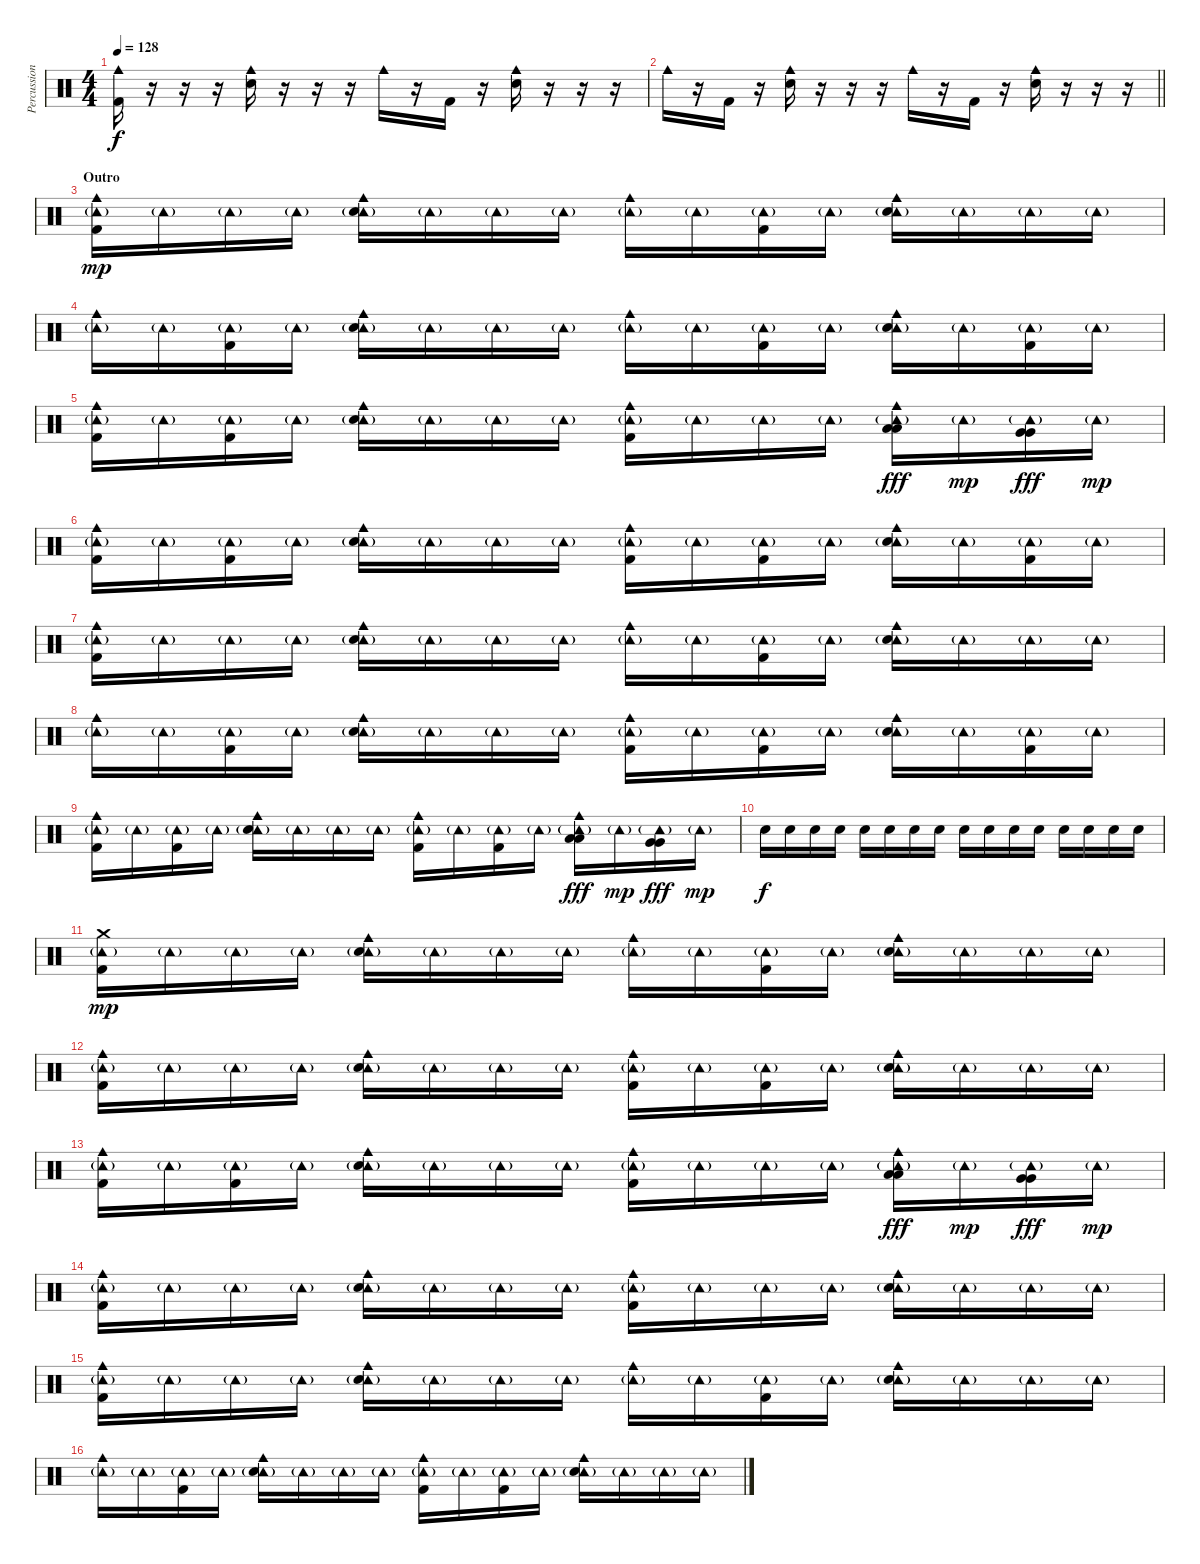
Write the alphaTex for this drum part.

\track ("Percussion" "Percussion") {instrument percussion}
\staff {score}
\articulation defaults
\ts (4 4)
\tempo 128
\clef neutral
\ks c
("Cowbell medium (hit)" "Kick (hit) 2").16{dy f} r.16 r.16 r.16 ("Cowbell medium (hit)" "Snare (hit) 2").16 r.16 r.16 r.16 "Cowbell medium (hit)".16 r.16 "Kick (hit) 2".16 r.16 ("Cowbell medium (hit)" "Snare (hit) 2").16 r.16 r.16 r.16 |
\barLineRight lightlight "Cowbell medium (hit)".16
r.16 "Kick (hit) 2".16 r.16 ("Cowbell medium (hit)" "Snare (hit) 2").16 r.16 r.16 r.16 "Cowbell medium (hit)".16 r.16 "Kick (hit) 2".16 r.16 ("Cowbell medium (hit)" "Snare (hit) 2").16 r.16 r.16 r.16 |
\section ("" "Outro")
("Tambourine (hit)"{g} "Cowbell medium (hit)" "Kick (hit) 2").16{dy mp} "Tambourine (hit)"{g}.16 "Tambourine (hit)"{g}.16 "Tambourine (hit)"{g}.16 ("Tambourine (hit)"{g} "Cowbell medium (hit)" "Snare (hit) 2").16 "Tambourine (hit)"{g}.16 "Tambourine (hit)"{g}.16 "Tambourine (hit)"{g}.16 ("Tambourine (hit)"{g} "Cowbell medium (hit)").16 "Tambourine (hit)"{g}.16 ("Tambourine (hit)"{g} "Kick (hit) 2").16 "Tambourine (hit)"{g}.16 ("Tambourine (hit)"{g} "Cowbell medium (hit)" "Snare (hit) 2").16 "Tambourine (hit)"{g}.16 "Tambourine (hit)"{g}.16 "Tambourine (hit)"{g}.16 |
("Tambourine (hit)"{g} "Cowbell medium (hit)").16 "Tambourine (hit)"{g}.16 ("Tambourine (hit)"{g} "Kick (hit) 2").16 "Tambourine (hit)"{g}.16 ("Tambourine (hit)"{g} "Cowbell medium (hit)" "Snare (hit) 2").16 "Tambourine (hit)"{g}.16 "Tambourine (hit)"{g}.16 "Tambourine (hit)"{g}.16 ("Tambourine (hit)"{g} "Cowbell medium (hit)").16 "Tambourine (hit)"{g}.16 ("Tambourine (hit)"{g} "Kick (hit) 2").16 "Tambourine (hit)"{g}.16 ("Tambourine (hit)"{g} "Cowbell medium (hit)" "Snare (hit) 2").16 "Tambourine (hit)"{g}.16 ("Tambourine (hit)"{g} "Kick (hit) 2").16 "Tambourine (hit)"{g}.16 |
("Tambourine (hit)"{g} "Cowbell medium (hit)" "Kick (hit) 2").16 "Tambourine (hit)"{g}.16 ("Tambourine (hit)"{g} "Kick (hit) 2").16 "Tambourine (hit)"{g}.16 ("Tambourine (hit)"{g} "Cowbell medium (hit)" "Snare (hit) 2").16 "Tambourine (hit)"{g}.16 "Tambourine (hit)"{g}.16 "Tambourine (hit)"{g}.16 ("Tambourine (hit)"{g} "Cowbell medium (hit)" "Kick (hit) 2").16 "Tambourine (hit)"{g}.16 "Tambourine (hit)"{g}.16 "Tambourine (hit)"{g}.16 ("Tambourine (hit)"{g} "Cowbell medium (hit)" "Low Tom (hit)" "Low Tom (hit)").16{dy fff} "Tambourine (hit)"{g}.16{dy mp} ("Tambourine (hit)"{g} "Very Low Tom (hit)" "Very Low Tom (hit)").16{dy fff} "Tambourine (hit)"{g}.16{dy mp} |
("Tambourine (hit)"{g} "Cowbell medium (hit)" "Kick (hit) 2").16 "Tambourine (hit)"{g}.16 ("Tambourine (hit)"{g} "Kick (hit) 2").16 "Tambourine (hit)"{g}.16 ("Tambourine (hit)"{g} "Cowbell medium (hit)" "Snare (hit) 2").16 "Tambourine (hit)"{g}.16 "Tambourine (hit)"{g}.16 "Tambourine (hit)"{g}.16 ("Tambourine (hit)"{g} "Cowbell medium (hit)" "Kick (hit) 2").16 "Tambourine (hit)"{g}.16 ("Tambourine (hit)"{g} "Kick (hit) 2").16 "Tambourine (hit)"{g}.16 ("Tambourine (hit)"{g} "Cowbell medium (hit)" "Snare (hit) 2").16 "Tambourine (hit)"{g}.16 ("Tambourine (hit)"{g} "Kick (hit) 2").16 "Tambourine (hit)"{g}.16 |
("Tambourine (hit)"{g} "Cowbell medium (hit)" "Kick (hit) 2").16 "Tambourine (hit)"{g}.16 "Tambourine (hit)"{g}.16 "Tambourine (hit)"{g}.16 ("Tambourine (hit)"{g} "Cowbell medium (hit)" "Snare (hit) 2").16 "Tambourine (hit)"{g}.16 "Tambourine (hit)"{g}.16 "Tambourine (hit)"{g}.16 ("Tambourine (hit)"{g} "Cowbell medium (hit)").16 "Tambourine (hit)"{g}.16 ("Tambourine (hit)"{g} "Kick (hit) 2").16 "Tambourine (hit)"{g}.16 ("Tambourine (hit)"{g} "Cowbell medium (hit)" "Snare (hit) 2").16 "Tambourine (hit)"{g}.16 "Tambourine (hit)"{g}.16 "Tambourine (hit)"{g}.16 |
("Tambourine (hit)"{g} "Cowbell medium (hit)").16 "Tambourine (hit)"{g}.16 ("Tambourine (hit)"{g} "Kick (hit) 2").16 "Tambourine (hit)"{g}.16 ("Tambourine (hit)"{g} "Cowbell medium (hit)" "Snare (hit) 2").16 "Tambourine (hit)"{g}.16 "Tambourine (hit)"{g}.16 "Tambourine (hit)"{g}.16 ("Tambourine (hit)"{g} "Cowbell medium (hit)" "Kick (hit) 2").16 "Tambourine (hit)"{g}.16 ("Tambourine (hit)"{g} "Kick (hit) 2").16 "Tambourine (hit)"{g}.16 ("Tambourine (hit)"{g} "Cowbell medium (hit)" "Snare (hit) 2").16 "Tambourine (hit)"{g}.16 ("Tambourine (hit)"{g} "Kick (hit) 2").16 "Tambourine (hit)"{g}.16 |
("Tambourine (hit)"{g} "Cowbell medium (hit)" "Kick (hit) 2").16 "Tambourine (hit)"{g}.16 ("Tambourine (hit)"{g} "Kick (hit) 2").16 "Tambourine (hit)"{g}.16 ("Tambourine (hit)"{g} "Cowbell medium (hit)" "Snare (hit) 2").16 "Tambourine (hit)"{g}.16 "Tambourine (hit)"{g}.16 "Tambourine (hit)"{g}.16 ("Tambourine (hit)"{g} "Cowbell medium (hit)" "Kick (hit) 2").16 "Tambourine (hit)"{g}.16 ("Tambourine (hit)"{g} "Kick (hit) 2").16 "Tambourine (hit)"{g}.16 ("Tambourine (hit)"{g} "Cowbell medium (hit)" "Low Tom (hit)" "Low Tom (hit)").16{dy fff} "Tambourine (hit)"{g}.16{dy mp} ("Tambourine (hit)"{g} "Very Low Tom (hit)" "Very Low Tom (hit)").16{dy fff} "Tambourine (hit)"{g}.16{dy mp} |
"Snare (hit) 2".16{dy f} "Snare (hit) 2".16 "Snare (hit) 2".16 "Snare (hit) 2".16 "Snare (hit) 2".16 "Snare (hit) 2".16 "Snare (hit) 2".16 "Snare (hit) 2".16 "Snare (hit) 2".16 "Snare (hit) 2".16 "Snare (hit) 2".16 "Snare (hit) 2".16 "Snare (hit) 2".16 "Snare (hit) 2".16 "Snare (hit) 2".16 "Snare (hit) 2".16 |
("Tambourine (hit)"{g} "Crash medium (hit)" "Kick (hit) 2").16{dy mp} "Tambourine (hit)"{g}.16 "Tambourine (hit)"{g}.16 "Tambourine (hit)"{g}.16 ("Tambourine (hit)"{g} "Cowbell medium (hit)" "Snare (hit) 2").16 "Tambourine (hit)"{g}.16 "Tambourine (hit)"{g}.16 "Tambourine (hit)"{g}.16 ("Tambourine (hit)"{g} "Cowbell medium (hit)").16 "Tambourine (hit)"{g}.16 ("Tambourine (hit)"{g} "Kick (hit) 2").16 "Tambourine (hit)"{g}.16 ("Tambourine (hit)"{g} "Cowbell medium (hit)" "Snare (hit) 2").16 "Tambourine (hit)"{g}.16 "Tambourine (hit)"{g}.16 "Tambourine (hit)"{g}.16 |
("Tambourine (hit)"{g} "Cowbell medium (hit)" "Kick (hit) 2").16 "Tambourine (hit)"{g}.16 "Tambourine (hit)"{g}.16 "Tambourine (hit)"{g}.16 ("Tambourine (hit)"{g} "Cowbell medium (hit)" "Snare (hit) 2").16 "Tambourine (hit)"{g}.16 "Tambourine (hit)"{g}.16 "Tambourine (hit)"{g}.16 ("Tambourine (hit)"{g} "Cowbell medium (hit)" "Kick (hit) 2").16 "Tambourine (hit)"{g}.16 ("Tambourine (hit)"{g} "Kick (hit) 2").16 "Tambourine (hit)"{g}.16 ("Tambourine (hit)"{g} "Cowbell medium (hit)" "Snare (hit) 2").16 "Tambourine (hit)"{g}.16 "Tambourine (hit)"{g}.16 "Tambourine (hit)"{g}.16 |
("Tambourine (hit)"{g} "Cowbell medium (hit)" "Kick (hit) 2").16 "Tambourine (hit)"{g}.16 ("Tambourine (hit)"{g} "Kick (hit) 2").16 "Tambourine (hit)"{g}.16 ("Tambourine (hit)"{g} "Cowbell medium (hit)" "Snare (hit) 2").16 "Tambourine (hit)"{g}.16 "Tambourine (hit)"{g}.16 "Tambourine (hit)"{g}.16 ("Tambourine (hit)"{g} "Cowbell medium (hit)" "Kick (hit) 2").16 "Tambourine (hit)"{g}.16 "Tambourine (hit)"{g}.16 "Tambourine (hit)"{g}.16 ("Tambourine (hit)"{g} "Cowbell medium (hit)" "Low Tom (hit)" "Low Tom (hit)").16{dy fff} "Tambourine (hit)"{g}.16{dy mp} ("Tambourine (hit)"{g} "Very Low Tom (hit)" "Very Low Tom (hit)").16{dy fff} "Tambourine (hit)"{g}.16{dy mp} |
("Tambourine (hit)"{g} "Cowbell medium (hit)" "Kick (hit) 2").16 "Tambourine (hit)"{g}.16 "Tambourine (hit)"{g}.16 "Tambourine (hit)"{g}.16 ("Tambourine (hit)"{g} "Cowbell medium (hit)" "Snare (hit) 2").16 "Tambourine (hit)"{g}.16 "Tambourine (hit)"{g}.16 "Tambourine (hit)"{g}.16 ("Tambourine (hit)"{g} "Cowbell medium (hit)" "Kick (hit) 2").16 "Tambourine (hit)"{g}.16 "Tambourine (hit)"{g}.16 "Tambourine (hit)"{g}.16 ("Tambourine (hit)"{g} "Cowbell medium (hit)" "Snare (hit) 2").16 "Tambourine (hit)"{g}.16 "Tambourine (hit)"{g}.16 "Tambourine (hit)"{g}.16 |
("Tambourine (hit)"{g} "Cowbell medium (hit)" "Kick (hit) 2").16 "Tambourine (hit)"{g}.16 "Tambourine (hit)"{g}.16 "Tambourine (hit)"{g}.16 ("Tambourine (hit)"{g} "Cowbell medium (hit)" "Snare (hit) 2").16 "Tambourine (hit)"{g}.16 "Tambourine (hit)"{g}.16 "Tambourine (hit)"{g}.16 ("Tambourine (hit)"{g} "Cowbell medium (hit)").16 "Tambourine (hit)"{g}.16 ("Tambourine (hit)"{g} "Kick (hit) 2").16 "Tambourine (hit)"{g}.16 ("Tambourine (hit)"{g} "Cowbell medium (hit)" "Snare (hit) 2").16 "Tambourine (hit)"{g}.16 "Tambourine (hit)"{g}.16 "Tambourine (hit)"{g}.16 |
("Tambourine (hit)"{g} "Cowbell medium (hit)").16 "Tambourine (hit)"{g}.16 ("Tambourine (hit)"{g} "Kick (hit) 2").16 "Tambourine (hit)"{g}.16 ("Tambourine (hit)"{g} "Cowbell medium (hit)" "Snare (hit) 2").16 "Tambourine (hit)"{g}.16 "Tambourine (hit)"{g}.16 "Tambourine (hit)"{g}.16 ("Tambourine (hit)"{g} "Cowbell medium (hit)" "Kick (hit) 2").16 "Tambourine (hit)"{g}.16 ("Tambourine (hit)"{g} "Kick (hit) 2").16 "Tambourine (hit)"{g}.16 ("Tambourine (hit)"{g} "Cowbell medium (hit)" "Snare (hit) 2").16 "Tambourine (hit)"{g}.16 "Tambourine (hit)"{g}.16 "Tambourine (hit)"{g}.16
